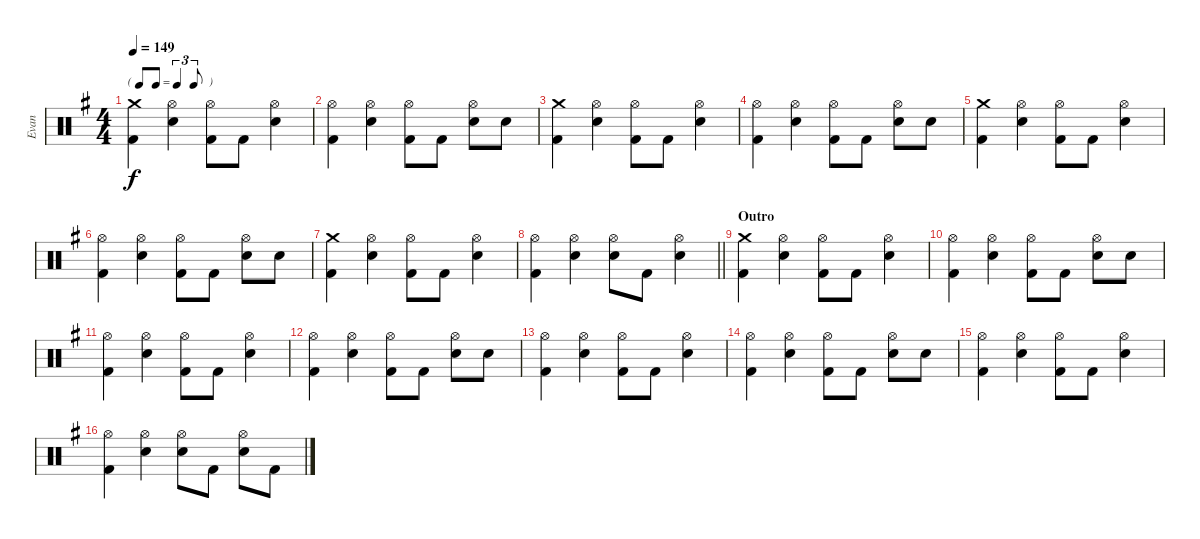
\track ("Evan" "Evan") {instrument percussion}
\staff {score}
\articulation defaults
\ts (4 4)
\tf triplet8th
\tempo 149
\clef neutral
\ks g
("Crash medium (hit)" "Kick (hit) 2").4{dy f} ("Hi-Hat (open)" "Electric Snare (hit)").4 ("Hi-Hat (open)" "Kick (hit) 2").8 "Kick (hit) 2".8 ("Hi-Hat (open)" "Electric Snare (hit)").4 |
("Hi-Hat (open)" "Kick (hit) 2").4 ("Hi-Hat (open)" "Electric Snare (hit)").4 ("Hi-Hat (open)" "Kick (hit) 2").8 "Kick (hit) 2".8 ("Hi-Hat (open)" "Electric Snare (hit)").8 "Electric Snare (hit)".8 |
("Crash medium (hit)" "Kick (hit) 2").4 ("Hi-Hat (open)" "Electric Snare (hit)").4 ("Hi-Hat (open)" "Kick (hit) 2").8 "Kick (hit) 2".8 ("Hi-Hat (open)" "Electric Snare (hit)").4 |
("Hi-Hat (open)" "Kick (hit) 2").4 ("Hi-Hat (open)" "Electric Snare (hit)").4 ("Hi-Hat (open)" "Kick (hit) 2").8 "Kick (hit) 2".8 ("Hi-Hat (open)" "Electric Snare (hit)").8 "Electric Snare (hit)".8 |
("Crash medium (hit)" "Kick (hit) 2").4 ("Hi-Hat (open)" "Electric Snare (hit)").4 ("Hi-Hat (open)" "Kick (hit) 2").8 "Kick (hit) 2".8 ("Hi-Hat (open)" "Electric Snare (hit)").4 |
("Hi-Hat (open)" "Kick (hit) 2").4 ("Hi-Hat (open)" "Electric Snare (hit)").4 ("Hi-Hat (open)" "Kick (hit) 2").8 "Kick (hit) 2".8 ("Hi-Hat (open)" "Electric Snare (hit)").8 "Electric Snare (hit)".8 |
("Crash medium (hit)" "Kick (hit) 2").4 ("Hi-Hat (open)" "Electric Snare (hit)").4 ("Hi-Hat (open)" "Kick (hit) 2").8 "Kick (hit) 2".8 ("Hi-Hat (open)" "Electric Snare (hit)").4 |
\barLineRight lightlight
("Hi-Hat (open)" "Kick (hit) 2").4 ("Hi-Hat (open)" "Electric Snare (hit)").4 ("Hi-Hat (open)" "Electric Snare (hit)").8 "Kick (hit) 2".8 ("Hi-Hat (open)" "Electric Snare (hit)").4 |
\section ("" "Outro")
("Crash medium (hit)" "Kick (hit) 2").4 ("Hi-Hat (open)" "Electric Snare (hit)").4 ("Hi-Hat (open)" "Kick (hit) 2").8 "Kick (hit) 2".8 ("Hi-Hat (open)" "Electric Snare (hit)").4 |
("Hi-Hat (open)" "Kick (hit) 2").4 ("Hi-Hat (open)" "Electric Snare (hit)").4 ("Hi-Hat (open)" "Kick (hit) 2").8 "Kick (hit) 2".8 ("Hi-Hat (open)" "Electric Snare (hit)").8 "Electric Snare (hit)".8 |
("Hi-Hat (open)" "Kick (hit) 2").4 ("Hi-Hat (open)" "Electric Snare (hit)").4 ("Hi-Hat (open)" "Kick (hit) 2").8 "Kick (hit) 2".8 ("Hi-Hat (open)" "Electric Snare (hit)").4 |
("Hi-Hat (open)" "Kick (hit) 2").4 ("Hi-Hat (open)" "Electric Snare (hit)").4 ("Hi-Hat (open)" "Kick (hit) 2").8 "Kick (hit) 2".8 ("Hi-Hat (open)" "Electric Snare (hit)").8 "Electric Snare (hit)".8 |
("Hi-Hat (open)" "Kick (hit) 2").4 ("Hi-Hat (open)" "Electric Snare (hit)").4 ("Hi-Hat (open)" "Kick (hit) 2").8 "Kick (hit) 2".8 ("Hi-Hat (open)" "Electric Snare (hit)").4 |
("Hi-Hat (open)" "Kick (hit) 2").4 ("Hi-Hat (open)" "Electric Snare (hit)").4 ("Hi-Hat (open)" "Kick (hit) 2").8 "Kick (hit) 2".8 ("Hi-Hat (open)" "Electric Snare (hit)").8 "Electric Snare (hit)".8 |
("Hi-Hat (open)" "Kick (hit) 2").4 ("Hi-Hat (open)" "Electric Snare (hit)").4 ("Hi-Hat (open)" "Kick (hit) 2").8 "Kick (hit) 2".8 ("Hi-Hat (open)" "Electric Snare (hit)").4 |
("Hi-Hat (open)" "Kick (hit) 2").4 ("Hi-Hat (open)" "Electric Snare (hit)").4 ("Hi-Hat (open)" "Electric Snare (hit)").8 "Kick (hit) 2".8 ("Hi-Hat (open)" "Electric Snare (hit)").8 "Kick (hit) 2".8
